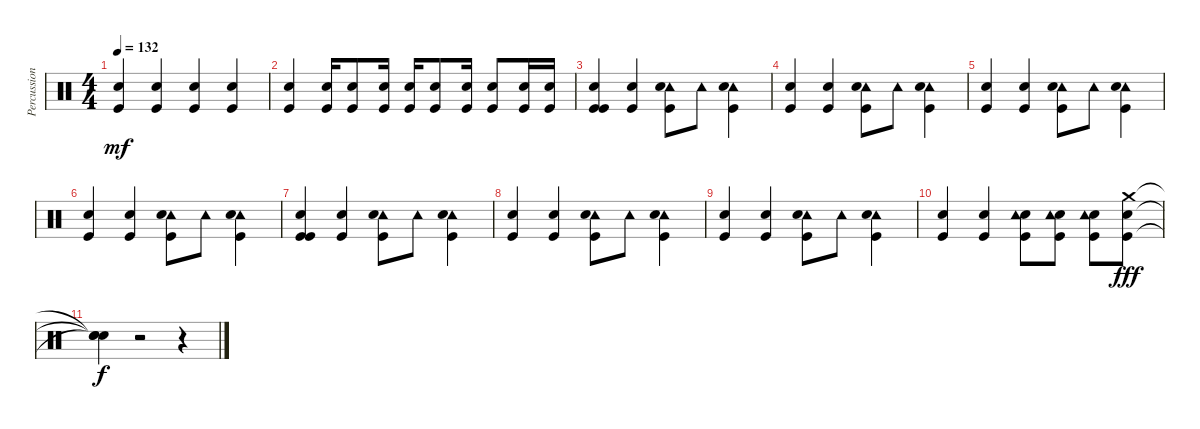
\track ("Percussion" "Percussion") {instrument percussion}
\staff {score}
\articulation defaults
\ts (4 4)
\tempo 132
\clef neutral
\ks c
("Snare (hit) 2" "Kick (hit)").4{dy mf} ("Snare (hit) 2" "Kick (hit)").4 ("Snare (hit) 2" "Kick (hit)").4 ("Kick (hit)" "Snare (hit) 2").4 |
("Kick (hit)" "Snare (hit) 2").4 ("Kick (hit)" "Snare (hit) 2").16 ("Snare (hit) 2" "Kick (hit)").8 ("Kick (hit)" "Snare (hit) 2").16 ("Snare (hit) 2" "Kick (hit)").16 ("Snare (hit) 2" "Kick (hit)").8 ("Kick (hit)" "Snare (hit) 2").16 ("Kick (hit)" "Snare (hit) 2").8 ("Kick (hit)" "Snare (hit) 2").16 ("Kick (hit)" "Snare (hit) 2").16 |
("Kick (hit)" "Snare (hit) 2" "Kick (hit)").4 ("Snare (hit) 2" "Kick (hit)").4 ("Tambourine (hit)" "Snare (hit) 2" "Kick (hit)").8 "Tambourine (hit)".8 ("Tambourine (hit)" "Snare (hit) 2" "Kick (hit)").4 |
("Snare (hit) 2" "Kick (hit)").4 ("Kick (hit)" "Snare (hit) 2").4 ("Tambourine (hit)" "Kick (hit)" "Snare (hit) 2").8 "Tambourine (hit)".8 ("Tambourine (hit)" "Kick (hit)" "Snare (hit) 2").4 |
("Kick (hit)" "Snare (hit) 2").4 ("Kick (hit)" "Snare (hit) 2").4 ("Tambourine (hit)" "Kick (hit)" "Snare (hit) 2").8 "Tambourine (hit)".8 ("Tambourine (hit)" "Kick (hit)" "Snare (hit) 2").4 |
("Kick (hit)" "Snare (hit) 2").4 ("Snare (hit) 2" "Kick (hit)").4 ("Tambourine (hit)" "Kick (hit)" "Snare (hit) 2").8 "Tambourine (hit)".8 ("Tambourine (hit)" "Snare (hit) 2" "Kick (hit)").4 |
("Kick (hit)" "Snare (hit) 2" "Kick (hit)").4 ("Snare (hit) 2" "Kick (hit)").4 ("Tambourine (hit)" "Snare (hit) 2" "Kick (hit)").8 "Tambourine (hit)".8 ("Tambourine (hit)" "Snare (hit) 2" "Kick (hit)").4 |
("Snare (hit) 2" "Kick (hit)").4 ("Kick (hit)" "Snare (hit) 2").4 ("Tambourine (hit)" "Kick (hit)" "Snare (hit) 2").8 "Tambourine (hit)".8 ("Tambourine (hit)" "Kick (hit)" "Snare (hit) 2").4 |
("Kick (hit)" "Snare (hit) 2").4 ("Kick (hit)" "Snare (hit) 2").4 ("Tambourine (hit)" "Kick (hit)" "Snare (hit) 2").8 "Tambourine (hit)".8 ("Tambourine (hit)" "Kick (hit)" "Snare (hit) 2").4 |
("Kick (hit)" "Snare (hit) 2").4 ("Snare (hit) 2" "Kick (hit)").4 ("Kick (hit)" "Snare (hit) 2" "Tambourine (hit)").8 ("Kick (hit)" "Snare (hit) 2" "Tambourine (hit)").8 ("Kick (hit)" "Snare (hit) 2" "Tambourine (hit)").8 ("Kick (hit)" "Snare (hit) 2" "Crash medium (hit)").8{dy fff} |
("Snare (hit)"{t} "Snare (hit)"{t} "Snare (hit)"{t}).4{dy f} r.2 r.4
